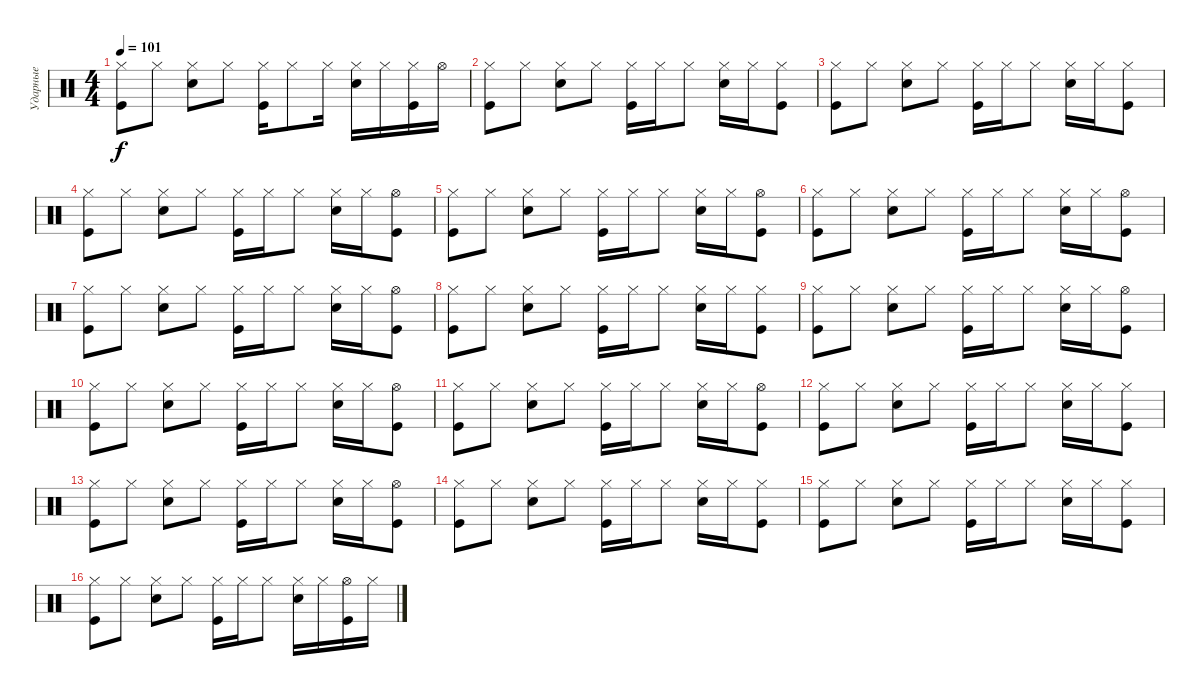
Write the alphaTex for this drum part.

\track ("Ударные" "Ударные") {instrument percussion}
\staff {score}
\articulation defaults
\ts (4 4)
\tempo 101
\clef neutral
\ks c
("Hi-Hat (closed)" "Kick (hit)").8{dy f} "Hi-Hat (closed)".8 ("Hi-Hat (closed)" "Snare (hit) 2").8 "Hi-Hat (closed)".8 ("Hi-Hat (closed)" "Kick (hit)").16 "Hi-Hat (closed)".8 "Hi-Hat (closed)".16 ("Snare (hit) 2" "Hi-Hat (closed)").16 "Hi-Hat (closed)".16 ("Hi-Hat (closed)" "Kick (hit)").16 "Hi-Hat (open)".16 |
("Hi-Hat (closed)" "Kick (hit)").8 "Hi-Hat (closed)".8 ("Hi-Hat (closed)" "Snare (hit) 2").8 "Hi-Hat (closed)".8 ("Hi-Hat (closed)" "Kick (hit)").16 "Hi-Hat (closed)".16 "Hi-Hat (closed)".8 ("Snare (hit) 2" "Hi-Hat (closed)").16 "Hi-Hat (closed)".16 ("Hi-Hat (closed)" "Kick (hit)").8 |
("Hi-Hat (closed)" "Kick (hit)").8 "Hi-Hat (closed)".8 ("Hi-Hat (closed)" "Snare (hit) 2").8 "Hi-Hat (closed)".8 ("Hi-Hat (closed)" "Kick (hit)").16 "Hi-Hat (closed)".16 "Hi-Hat (closed)".8 ("Snare (hit) 2" "Hi-Hat (closed)").16 "Hi-Hat (closed)".16 ("Hi-Hat (closed)" "Kick (hit)").8 |
("Hi-Hat (closed)" "Kick (hit)").8 "Hi-Hat (closed)".8 ("Hi-Hat (closed)" "Snare (hit) 2").8 "Hi-Hat (closed)".8 ("Hi-Hat (closed)" "Kick (hit)").16 "Hi-Hat (closed)".16 "Hi-Hat (closed)".8 ("Snare (hit) 2" "Hi-Hat (closed)").16 "Hi-Hat (closed)".16 ("Hi-Hat (open)" "Kick (hit)").8 |
("Hi-Hat (closed)" "Kick (hit)").8 "Hi-Hat (closed)".8 ("Hi-Hat (closed)" "Snare (hit) 2").8 "Hi-Hat (closed)".8 ("Hi-Hat (closed)" "Kick (hit)").16 "Hi-Hat (closed)".16 "Hi-Hat (closed)".8 ("Snare (hit) 2" "Hi-Hat (closed)").16 "Hi-Hat (closed)".16 ("Hi-Hat (open)" "Kick (hit)").8 |
("Hi-Hat (closed)" "Kick (hit)").8 "Hi-Hat (closed)".8 ("Hi-Hat (closed)" "Snare (hit) 2").8 "Hi-Hat (closed)".8 ("Hi-Hat (closed)" "Kick (hit)").16 "Hi-Hat (closed)".16 "Hi-Hat (closed)".8 ("Snare (hit) 2" "Hi-Hat (closed)").16 "Hi-Hat (closed)".16 ("Hi-Hat (open)" "Kick (hit)").8 |
("Hi-Hat (closed)" "Kick (hit)").8 "Hi-Hat (closed)".8 ("Hi-Hat (closed)" "Snare (hit) 2").8 "Hi-Hat (closed)".8 ("Hi-Hat (closed)" "Kick (hit)").16 "Hi-Hat (closed)".16 "Hi-Hat (closed)".8 ("Snare (hit) 2" "Hi-Hat (closed)").16 "Hi-Hat (closed)".16 ("Hi-Hat (open)" "Kick (hit)").8 |
("Hi-Hat (closed)" "Kick (hit)").8 "Hi-Hat (closed)".8 ("Hi-Hat (closed)" "Snare (hit) 2").8 "Hi-Hat (closed)".8 ("Hi-Hat (closed)" "Kick (hit)").16 "Hi-Hat (closed)".16 "Hi-Hat (closed)".8 ("Snare (hit) 2" "Hi-Hat (closed)").16 "Hi-Hat (closed)".16 ("Hi-Hat (closed)" "Kick (hit)").8 |
("Hi-Hat (closed)" "Kick (hit)").8 "Hi-Hat (closed)".8 ("Hi-Hat (closed)" "Snare (hit) 2").8 "Hi-Hat (closed)".8 ("Hi-Hat (closed)" "Kick (hit)").16 "Hi-Hat (closed)".16 "Hi-Hat (closed)".8 ("Snare (hit) 2" "Hi-Hat (closed)").16 "Hi-Hat (closed)".16 ("Hi-Hat (open)" "Kick (hit)").8 |
("Hi-Hat (closed)" "Kick (hit)").8 "Hi-Hat (closed)".8 ("Hi-Hat (closed)" "Snare (hit) 2").8 "Hi-Hat (closed)".8 ("Hi-Hat (closed)" "Kick (hit)").16 "Hi-Hat (closed)".16 "Hi-Hat (closed)".8 ("Snare (hit) 2" "Hi-Hat (closed)").16 "Hi-Hat (closed)".16 ("Hi-Hat (open)" "Kick (hit)").8 |
("Hi-Hat (closed)" "Kick (hit)").8 "Hi-Hat (closed)".8 ("Hi-Hat (closed)" "Snare (hit) 2").8 "Hi-Hat (closed)".8 ("Hi-Hat (closed)" "Kick (hit)").16 "Hi-Hat (closed)".16 "Hi-Hat (closed)".8 ("Snare (hit) 2" "Hi-Hat (closed)").16 "Hi-Hat (closed)".16 ("Hi-Hat (open)" "Kick (hit)").8 |
("Hi-Hat (closed)" "Kick (hit)").8 "Hi-Hat (closed)".8 ("Hi-Hat (closed)" "Snare (hit) 2").8 "Hi-Hat (closed)".8 ("Hi-Hat (closed)" "Kick (hit)").16 "Hi-Hat (closed)".16 "Hi-Hat (closed)".8 ("Snare (hit) 2" "Hi-Hat (closed)").16 "Hi-Hat (closed)".16 ("Hi-Hat (closed)" "Kick (hit)").8 |
("Hi-Hat (closed)" "Kick (hit)").8 "Hi-Hat (closed)".8 ("Hi-Hat (closed)" "Snare (hit) 2").8 "Hi-Hat (closed)".8 ("Hi-Hat (closed)" "Kick (hit)").16 "Hi-Hat (closed)".16 "Hi-Hat (closed)".8 ("Snare (hit) 2" "Hi-Hat (closed)").16 "Hi-Hat (closed)".16 ("Hi-Hat (open)" "Kick (hit)").8 |
("Hi-Hat (closed)" "Kick (hit)").8 "Hi-Hat (closed)".8 ("Hi-Hat (closed)" "Snare (hit) 2").8 "Hi-Hat (closed)".8 ("Hi-Hat (closed)" "Kick (hit)").16 "Hi-Hat (closed)".16 "Hi-Hat (closed)".8 ("Snare (hit) 2" "Hi-Hat (closed)").16 "Hi-Hat (closed)".16 ("Hi-Hat (closed)" "Kick (hit)").8 |
("Hi-Hat (closed)" "Kick (hit)").8 "Hi-Hat (closed)".8 ("Hi-Hat (closed)" "Snare (hit) 2").8 "Hi-Hat (closed)".8 ("Hi-Hat (closed)" "Kick (hit)").16 "Hi-Hat (closed)".16 "Hi-Hat (closed)".8 ("Snare (hit) 2" "Hi-Hat (closed)").16 "Hi-Hat (closed)".16 ("Hi-Hat (closed)" "Kick (hit)").8 |
("Hi-Hat (closed)" "Kick (hit)").8 "Hi-Hat (closed)".8 ("Hi-Hat (closed)" "Snare (hit) 2").8 "Hi-Hat (closed)".8 ("Hi-Hat (closed)" "Kick (hit)").16 "Hi-Hat (closed)".16 "Hi-Hat (closed)".8 ("Snare (hit) 2" "Hi-Hat (closed)").16 "Hi-Hat (closed)".16 ("Hi-Hat (open)" "Kick (hit)").16 "Hi-Hat (closed)".16
